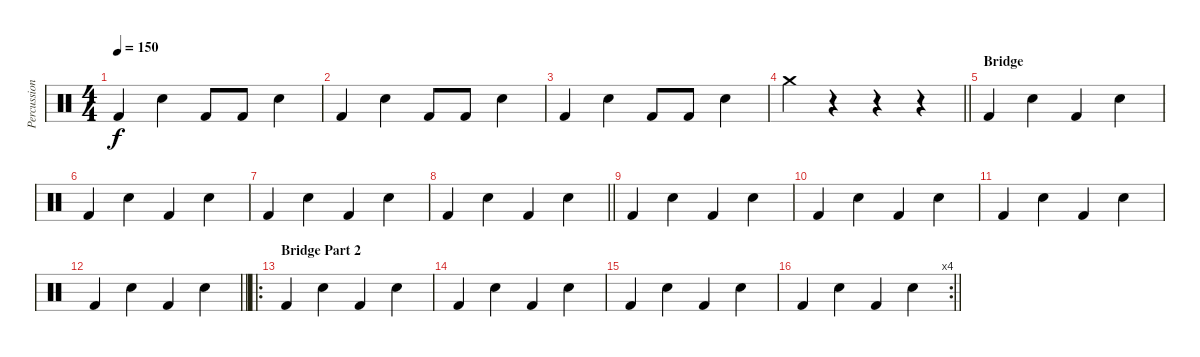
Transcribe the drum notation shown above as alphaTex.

\track ("Percussion" "Percussion") {instrument percussion bank 255}
\staff {score}
\articulation defaults
\ts (4 4)
\tempo 150
\clef neutral
\ks c "Kick (hit) 2".4{dy f} "Electric Snare (hit)".4 "Kick (hit) 2".8 "Kick (hit) 2".8 "Electric Snare (hit)".4
|
"Kick (hit) 2".4 "Electric Snare (hit)".4 "Kick (hit) 2".8 "Kick (hit) 2".8 "Electric Snare (hit)".4 |
"Kick (hit) 2".4 "Electric Snare (hit)".4 "Kick (hit) 2".8 "Kick (hit) 2".8 "Electric Snare (hit)".4 |
\barLineRight lightlight "Crash medium (hit)".4
r.4 r.4 r.4 |
\section ("" "Bridge")
"Kick (hit) 2".4 "Electric Snare (hit)".4 "Kick (hit) 2".4 "Electric Snare (hit)".4 |
"Kick (hit) 2".4 "Electric Snare (hit)".4 "Kick (hit) 2".4 "Electric Snare (hit)".4 |
"Kick (hit) 2".4 "Electric Snare (hit)".4 "Kick (hit) 2".4 "Electric Snare (hit)".4 |
\barLineRight lightlight "Kick (hit) 2".4 "Electric Snare (hit)".4 "Kick (hit) 2".4 "Electric Snare (hit)".4
|
"Kick (hit) 2".4 "Electric Snare (hit)".4 "Kick (hit) 2".4 "Electric Snare (hit)".4 |
"Kick (hit) 2".4 "Electric Snare (hit)".4 "Kick (hit) 2".4 "Electric Snare (hit)".4 |
"Kick (hit) 2".4 "Electric Snare (hit)".4 "Kick (hit) 2".4 "Electric Snare (hit)".4 |
\barLineRight lightlight "Kick (hit) 2".4 "Electric Snare (hit)".4 "Kick (hit) 2".4 "Electric Snare (hit)".4
|
\ro
\section ("" "Bridge Part 2")
"Kick (hit) 2".4 "Electric Snare (hit)".4 "Kick (hit) 2".4 "Electric Snare (hit)".4 |
"Kick (hit) 2".4 "Electric Snare (hit)".4 "Kick (hit) 2".4 "Electric Snare (hit)".4 |
"Kick (hit) 2".4 "Electric Snare (hit)".4 "Kick (hit) 2".4 "Electric Snare (hit)".4 |
\rc 4
\barLineRight lightlight "Kick (hit) 2".4 "Electric Snare (hit)".4 "Kick (hit) 2".4 "Electric Snare (hit)".4
